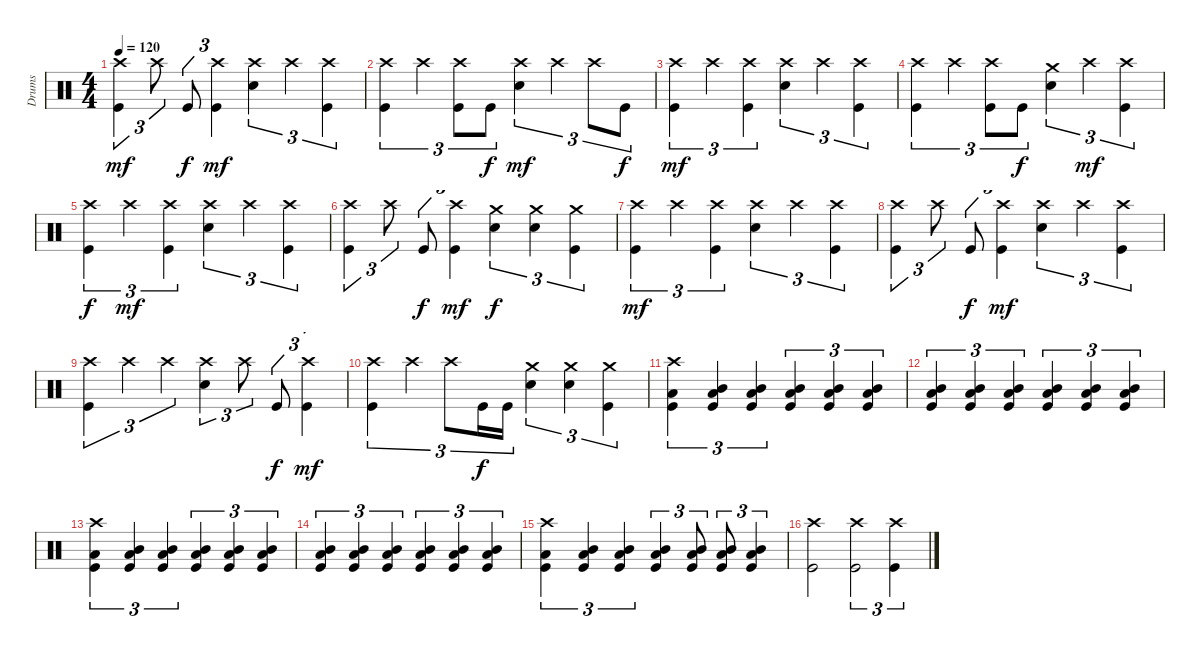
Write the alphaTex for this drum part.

\track ("Drums" "Drums") {instrument percussion}
\staff {score}
\articulation defaults
\ts (4 4)
\tempo 120
\clef neutral
\ks c
("Crash high (hit)" "Kick (hit)").4{tu (3 2) dy mf} "Crash high (hit)".8{tu (3 2)} "Kick (hit)".8{tu (3 2) dy f} ("Crash high (hit)" "Kick (hit)").4{tu (3 2) dy mf} ("Crash high (hit)" "Electric Snare (hit)").4{tu (3 2)} "Crash high (hit)".4{tu (3 2)} ("Crash high (hit)" "Kick (hit)").4{tu (3 2)} |
("Crash high (hit)" "Kick (hit)").4{tu (3 2)} "Crash high (hit)".4{tu (3 2)} ("Crash high (hit)" "Kick (hit)").8{tu (3 2)} "Kick (hit)".8{tu (3 2) dy f} ("Crash high (hit)" "Electric Snare (hit)").4{tu (3 2) dy mf} "Crash high (hit)".4{tu (3 2)} "Crash high (hit)".8{tu (3 2)} "Kick (hit)".8{tu (3 2) dy f} |
("Crash high (hit)" "Kick (hit)").4{tu (3 2) dy mf} "Crash high (hit)".4{tu (3 2)} ("Crash high (hit)" "Kick (hit)").4{tu (3 2)} ("Crash high (hit)" "Electric Snare (hit)").4{tu (3 2)} "Crash high (hit)".4{tu (3 2)} ("Crash high (hit)" "Kick (hit)").4{tu (3 2)} |
("Crash high (hit)" "Kick (hit)").4{tu (3 2)} "Crash high (hit)".4{tu (3 2)} ("Crash high (hit)" "Kick (hit)").8{tu (3 2)} "Kick (hit)".8{tu (3 2) dy f} ("Crash medium (hit)" "Electric Snare (hit)").4{tu (3 2)} "Crash high (hit)".4{tu (3 2) dy mf} ("Crash high (hit)" "Kick (hit)").4{tu (3 2)} |
("Crash high (hit)" "Kick (hit)").4{tu (3 2) dy f} "Crash high (hit)".4{tu (3 2) dy mf} ("Crash high (hit)" "Kick (hit)").4{tu (3 2)} ("Crash high (hit)" "Electric Snare (hit)").4{tu (3 2)} "Crash high (hit)".4{tu (3 2)} ("Crash high (hit)" "Kick (hit)").4{tu (3 2)} |
("Crash high (hit)" "Kick (hit)").4{tu (3 2)} "Crash high (hit)".8{tu (3 2)} "Kick (hit)".8{tu (3 2) dy f} ("Crash high (hit)" "Kick (hit)").4{tu (3 2) dy mf} ("Crash medium (hit)" "Electric Snare (hit)").4{tu (3 2) dy f} ("Crash medium (hit)" "Electric Snare (hit)").4{tu (3 2)} ("Crash medium (hit)" "Kick (hit)").4{tu (3 2)} |
("Crash high (hit)" "Kick (hit)").4{tu (3 2) dy mf} "Crash high (hit)".4{tu (3 2)} ("Crash high (hit)" "Kick (hit)").4{tu (3 2)} ("Crash high (hit)" "Electric Snare (hit)").4{tu (3 2)} "Crash high (hit)".4{tu (3 2)} ("Crash high (hit)" "Kick (hit)").4{tu (3 2)} |
("Crash high (hit)" "Kick (hit)").4{tu (3 2)} "Crash high (hit)".8{tu (3 2)} "Kick (hit)".8{tu (3 2) dy f} ("Crash high (hit)" "Kick (hit)").4{tu (3 2) dy mf} ("Crash high (hit)" "Electric Snare (hit)").4{tu (3 2)} "Crash high (hit)".4{tu (3 2)} ("Crash high (hit)" "Kick (hit)").4{tu (3 2)} |
("Crash high (hit)" "Kick (hit)").4{tu (3 2)} "Crash high (hit)".4{tu (3 2)} "Crash high (hit)".4{tu (3 2)} ("Crash high (hit)" "Electric Snare (hit)").4{tu (3 2)} "Crash high (hit)".8{tu (3 2)} "Kick (hit)".8{tu (3 2) dy f} ("Crash high (hit)" "Kick (hit)").4{tu (3 2) dy mf} |
("Crash high (hit)" "Kick (hit)").4{tu (3 2)} "Crash high (hit)".4{tu (3 2)} "Crash high (hit)".8{tu (3 2)} "Kick (hit)".16{tu (3 2) dy f} "Kick (hit)".16{tu (3 2)} ("Crash medium (hit)" "Electric Snare (hit)").4{tu (3 2)} ("Crash medium (hit)" "Electric Snare (hit)").4{tu (3 2)} ("Crash medium (hit)" "Kick (hit)").4{tu (3 2)} |
("Crash high (hit)" "Low Tom (hit)" "Kick (hit)").4{tu (3 2)} ("Mid Tom (hit)" "Low Tom (hit)" "Kick (hit)").4{tu (3 2)} ("Mid Tom (hit)" "Low Tom (hit)" "Kick (hit)").4{tu (3 2)} ("Mid Tom (hit)" "Low Tom (hit)" "Kick (hit)").4{tu (3 2)} ("Mid Tom (hit)" "Low Tom (hit)" "Kick (hit)").4{tu (3 2)} ("Mid Tom (hit)" "Low Tom (hit)" "Kick (hit)").4{tu (3 2)} |
("Mid Tom (hit)" "Low Tom (hit)" "Kick (hit)").4{tu (3 2)} ("Mid Tom (hit)" "Low Tom (hit)" "Kick (hit)").4{tu (3 2)} ("Mid Tom (hit)" "Low Tom (hit)" "Kick (hit)").4{tu (3 2)} ("Mid Tom (hit)" "Low Tom (hit)" "Kick (hit)").4{tu (3 2)} ("Mid Tom (hit)" "Low Tom (hit)" "Kick (hit)").4{tu (3 2)} ("Mid Tom (hit)" "Low Tom (hit)" "Kick (hit)").4{tu (3 2)} |
("Crash high (hit)" "Low Tom (hit)" "Kick (hit)").4{tu (3 2)} ("Mid Tom (hit)" "Low Tom (hit)" "Kick (hit)").4{tu (3 2)} ("Mid Tom (hit)" "Low Tom (hit)" "Kick (hit)").4{tu (3 2)} ("Mid Tom (hit)" "Low Tom (hit)" "Kick (hit)").4{tu (3 2)} ("Mid Tom (hit)" "Low Tom (hit)" "Kick (hit)").4{tu (3 2)} ("Mid Tom (hit)" "Low Tom (hit)" "Kick (hit)").4{tu (3 2)} |
("Mid Tom (hit)" "Low Tom (hit)" "Kick (hit)").4{tu (3 2)} ("Mid Tom (hit)" "Low Tom (hit)" "Kick (hit)").4{tu (3 2)} ("Mid Tom (hit)" "Low Tom (hit)" "Kick (hit)").4{tu (3 2)} ("Mid Tom (hit)" "Low Tom (hit)" "Kick (hit)").4{tu (3 2)} ("Mid Tom (hit)" "Low Tom (hit)" "Kick (hit)").4{tu (3 2)} ("Mid Tom (hit)" "Low Tom (hit)" "Kick (hit)").4{tu (3 2)} |
("Crash high (hit)" "Low Tom (hit)" "Kick (hit)").4{tu (3 2)} ("Mid Tom (hit)" "Low Tom (hit)" "Kick (hit)").4{tu (3 2)} ("Mid Tom (hit)" "Low Tom (hit)" "Kick (hit)").4{tu (3 2)} ("Mid Tom (hit)" "Low Tom (hit)" "Kick (hit)").4{tu (3 2)} ("Mid Tom (hit)" "Low Tom (hit)" "Kick (hit)").8{tu (3 2)} ("Mid Tom (hit)" "Low Tom (hit)" "Kick (hit)").8{tu (3 2)} ("Mid Tom (hit)" "Low Tom (hit)" "Kick (hit)").4{tu (3 2)} |
("Crash high (hit)" "Kick (hit)").2 ("Crash high (hit)" "Kick (hit)").2{tu (3 2)} ("Crash high (hit)" "Kick (hit)").4{tu (3 2)}
